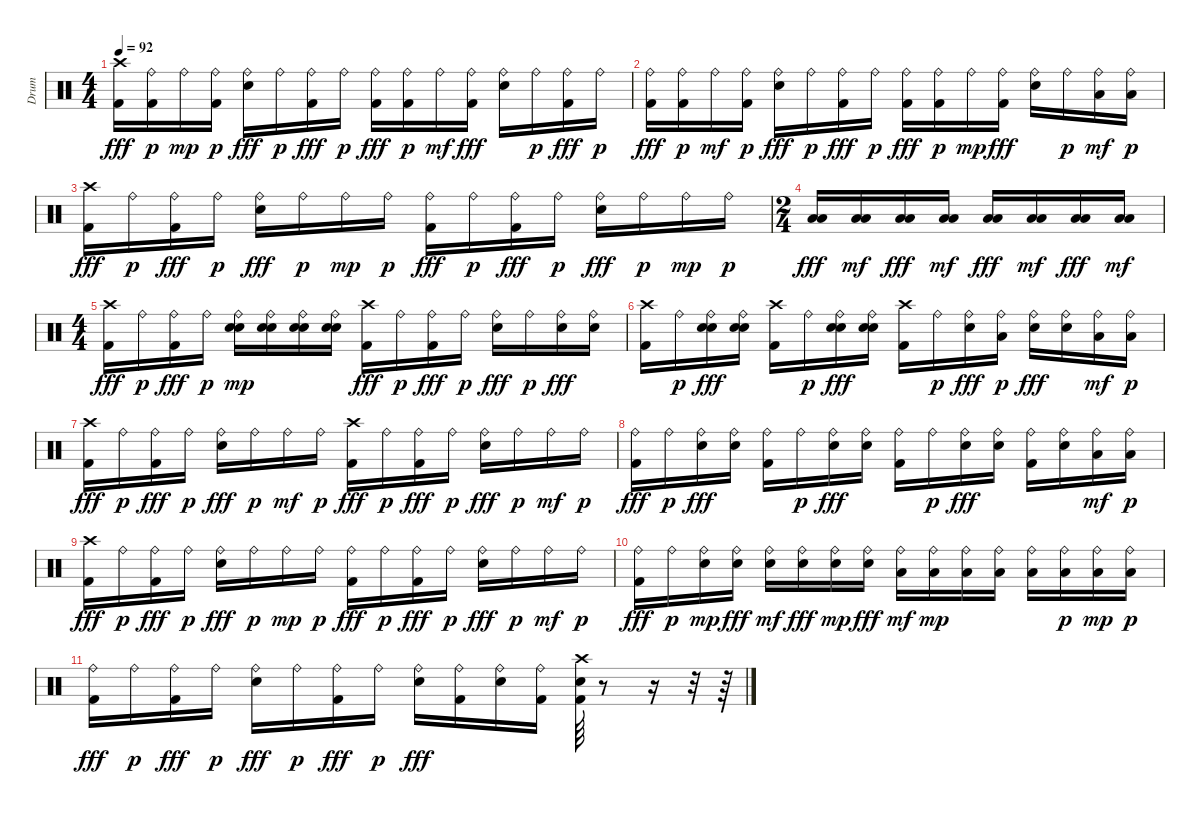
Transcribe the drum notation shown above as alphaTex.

\track ("Drum" "Drum") {instrument percussion}
\staff {score}
\articulation defaults
\ts (4 4)
\tempo 92
\clef neutral
\ks c
("Crash high (hit)" "Kick (hit) 2").16{dy fff} ("Ride (bell)" "Kick (hit) 2").16{dy p} "Ride (bell)".16{dy mp} ("Ride (bell)" "Kick (hit) 2").16{dy p} ("Ride (bell)" "Electric Snare (hit)").16{dy fff} "Ride (bell)".16{dy p} ("Ride (bell)" "Kick (hit) 2").16{dy fff} "Ride (bell)".16{dy p} ("Ride (bell)" "Kick (hit) 2").16{dy fff} ("Ride (bell)" "Kick (hit) 2").16{dy p} "Ride (bell)".16{dy mf} ("Ride (bell)" "Kick (hit) 2").16{dy fff} ("Ride (bell)" "Electric Snare (hit)").16 "Ride (bell)".16{dy p} ("Ride (bell)" "Kick (hit) 2").16{dy fff} "Ride (bell)".16{dy p} |
("Ride (bell)" "Kick (hit) 2").16{dy fff} ("Ride (bell)" "Kick (hit) 2").16{dy p} "Ride (bell)".16{dy mf} ("Ride (bell)" "Kick (hit) 2").16{dy p} ("Ride (bell)" "Electric Snare (hit)").16{dy fff} "Ride (bell)".16{dy p} ("Ride (bell)" "Kick (hit) 2").16{dy fff} "Ride (bell)".16{dy p} ("Ride (bell)" "Kick (hit) 2").16{dy fff} ("Ride (bell)" "Kick (hit) 2").16{dy p} "Ride (bell)".16{dy mp} ("Ride (bell)" "Kick (hit) 2").16{dy fff} ("Ride (bell)" "Electric Snare (hit)").16 "Ride (bell)".16{dy p} ("Ride (bell)" "Low Tom (hit)").16{dy mf} ("Ride (bell)" "Low Tom (hit)").16{dy p} |
("Crash high (hit)" "Kick (hit) 2").16{dy fff} "Ride (bell)".16{dy p} ("Ride (bell)" "Kick (hit) 2").16{dy fff} "Ride (bell)".16{dy p} ("Ride (bell)" "Electric Snare (hit)").16{dy fff} "Ride (bell)".16{dy p} "Ride (bell)".16{dy mp} "Ride (bell)".16{dy p} ("Ride (bell)" "Kick (hit) 2").16{dy fff} "Ride (bell)".16{dy p} ("Ride (bell)" "Kick (hit) 2").16{dy fff} "Ride (bell)".16{dy p} ("Ride (bell)" "Electric Snare (hit)").16{dy fff} "Ride (bell)".16{dy p} "Ride (bell)".16{dy mp} "Ride (bell)".16{dy p} |
\ts (2 4)
("Low Floor Tom (hit)" "Low Tom (hit)").16{dy fff} ("Low Floor Tom (hit)" "Low Tom (hit)").16{dy mf} ("Low Floor Tom (hit)" "Low Tom (hit)").16{dy fff} ("Low Floor Tom (hit)" "Low Tom (hit)").16{dy mf} ("Low Floor Tom (hit)" "Low Tom (hit)").16{dy fff} ("Low Floor Tom (hit)" "Low Tom (hit)").16{dy mf} ("Low Floor Tom (hit)" "Low Tom (hit)").16{dy fff} ("Low Floor Tom (hit)" "Low Tom (hit)").16{dy mf} |
\ts (4 4)
("Crash high (hit)" "Kick (hit) 2").16{dy fff} "Ride (bell)".16{dy p} ("Ride (bell)" "Kick (hit) 2").16{dy fff} "Ride (bell)".16{dy p} ("Ride (bell)" "Electric Snare (hit)" "Electric Snare (hit)").16{dy mp} ("Ride (bell)" "Electric Snare (hit)" "Electric Snare (hit)").16 ("Ride (bell)" "Electric Snare (hit)" "Electric Snare (hit)").16 ("Ride (bell)" "Electric Snare (hit)" "Electric Snare (hit)").16 ("Crash high (hit)" "Kick (hit) 2").16{dy fff} "Ride (bell)".16{dy p} ("Ride (bell)" "Kick (hit) 2").16{dy fff} "Ride (bell)".16{dy p} ("Ride (bell)" "Electric Snare (hit)").16{dy fff} "Ride (bell)".16{dy p} ("Ride (bell)" "Electric Snare (hit)").16{dy fff} ("Ride (bell)" "Electric Snare (hit)").16 |
("Crash high (hit)" "Kick (hit) 2").16 "Ride (bell)".16{dy p} ("Ride (bell)" "Electric Snare (hit)" "Electric Snare (hit)").16{dy fff} ("Ride (bell)" "Electric Snare (hit)" "Electric Snare (hit)").16 ("Crash high (hit)" "Kick (hit) 2").16 "Ride (bell)".16{dy p} ("Ride (bell)" "Electric Snare (hit)" "Electric Snare (hit)").16{dy fff} ("Ride (bell)" "Electric Snare (hit)" "Electric Snare (hit)").16 ("Crash high (hit)" "Kick (hit) 2").16 "Ride (bell)".16{dy p} ("Ride (bell)" "Electric Snare (hit)").16{dy fff} ("Ride (bell)" "Low Tom (hit)").16{dy p} ("Ride (bell)" "Electric Snare (hit)").16{dy fff} ("Ride (bell)" "Electric Snare (hit)").16 ("Ride (bell)" "Low Tom (hit)").16{dy mf} ("Ride (bell)" "Low Tom (hit)").16{dy p} |
("Crash high (hit)" "Kick (hit) 2").16{dy fff} "Ride (bell)".16{dy p} ("Ride (bell)" "Kick (hit) 2").16{dy fff} "Ride (bell)".16{dy p} ("Ride (bell)" "Electric Snare (hit)").16{dy fff} "Ride (bell)".16{dy p} "Ride (bell)".16{dy mf} "Ride (bell)".16{dy p} ("Crash high (hit)" "Kick (hit) 2").16{dy fff} "Ride (bell)".16{dy p} ("Ride (bell)" "Kick (hit) 2").16{dy fff} "Ride (bell)".16{dy p} ("Ride (bell)" "Electric Snare (hit)").16{dy fff} "Ride (bell)".16{dy p} "Ride (bell)".16{dy mf} "Ride (bell)".16{dy p} |
("Ride (bell)" "Kick (hit) 2").16{dy fff} "Ride (bell)".16{dy p} ("Ride (bell)" "Electric Snare (hit)").16{dy fff} ("Ride (bell)" "Electric Snare (hit)").16 ("Ride (bell)" "Kick (hit) 2").16 "Ride (bell)".16{dy p} ("Ride (bell)" "Electric Snare (hit)").16{dy fff} ("Ride (bell)" "Electric Snare (hit)").16 ("Ride (bell)" "Kick (hit) 2").16 "Ride (bell)".16{dy p} ("Ride (bell)" "Electric Snare (hit)").16{dy fff} ("Ride (bell)" "Electric Snare (hit)").16 ("Ride (bell)" "Kick (hit) 2").16 ("Ride (bell)" "Electric Snare (hit)").16 ("Ride (bell)" "Low Tom (hit)").16{dy mf} ("Ride (bell)" "Low Floor Tom (hit)").16{dy p} |
("Crash high (hit)" "Kick (hit) 2").16{dy fff} "Ride (bell)".16{dy p} ("Ride (bell)" "Kick (hit) 2").16{dy fff} "Ride (bell)".16{dy p} ("Ride (bell)" "Electric Snare (hit)").16{dy fff} "Ride (bell)".16{dy p} "Ride (bell)".16{dy mp} "Ride (bell)".16{dy p} ("Ride (bell)" "Kick (hit) 2").16{dy fff} "Ride (bell)".16{dy p} ("Ride (bell)" "Kick (hit) 2").16{dy fff} "Ride (bell)".16{dy p} ("Ride (bell)" "Electric Snare (hit)").16{dy fff} "Ride (bell)".16{dy p} "Ride (bell)".16{dy mf} "Ride (bell)".16{dy p} |
("Ride (bell)" "Kick (hit) 2").16{dy fff} "Ride (bell)".16{dy p} ("Ride (bell)" "Electric Snare (hit)").16{dy mp} ("Ride (bell)" "Electric Snare (hit)").16{dy fff} ("Ride (bell)" "Electric Snare (hit)").16{dy mf} ("Ride (bell)" "Electric Snare (hit)").16{dy fff} ("Ride (bell)" "Electric Snare (hit)").16{dy mp} ("Ride (bell)" "Electric Snare (hit)").16{dy fff} ("Ride (bell)" "Low Tom (hit)").16{dy mf} ("Ride (bell)" "Low Tom (hit)").16{dy mp} ("Ride (bell)" "Low Tom (hit)").16 ("Ride (bell)" "Low Tom (hit)").16 ("Ride (bell)" "Low Floor Tom (hit)").16 ("Ride (bell)" "Low Floor Tom (hit)").16{dy p} ("Ride (bell)" "Low Floor Tom (hit)").16{dy mp} ("Ride (bell)" "Low Floor Tom (hit)").16{dy p} |
("Ride (bell)" "Kick (hit) 2").16{dy fff} "Ride (bell)".16{dy p} ("Ride (bell)" "Kick (hit) 2").16{dy fff} "Ride (bell)".16{dy p} ("Ride (bell)" "Electric Snare (hit)").16{dy fff} "Ride (bell)".16{dy p} ("Ride (bell)" "Kick (hit) 2").16{dy fff} "Ride (bell)".16{dy p} ("Ride (bell)" "Electric Snare (hit)").16{dy fff} ("Ride (bell)" "Kick (hit) 2").16 ("Ride (bell)" "Electric Snare (hit)").16 ("Ride (bell)" "Kick (hit) 2").16 ("Electric Snare (hit)" "Crash high (hit)" "Kick (hit) 2").64 r.8 r.16 r.32 r.64
